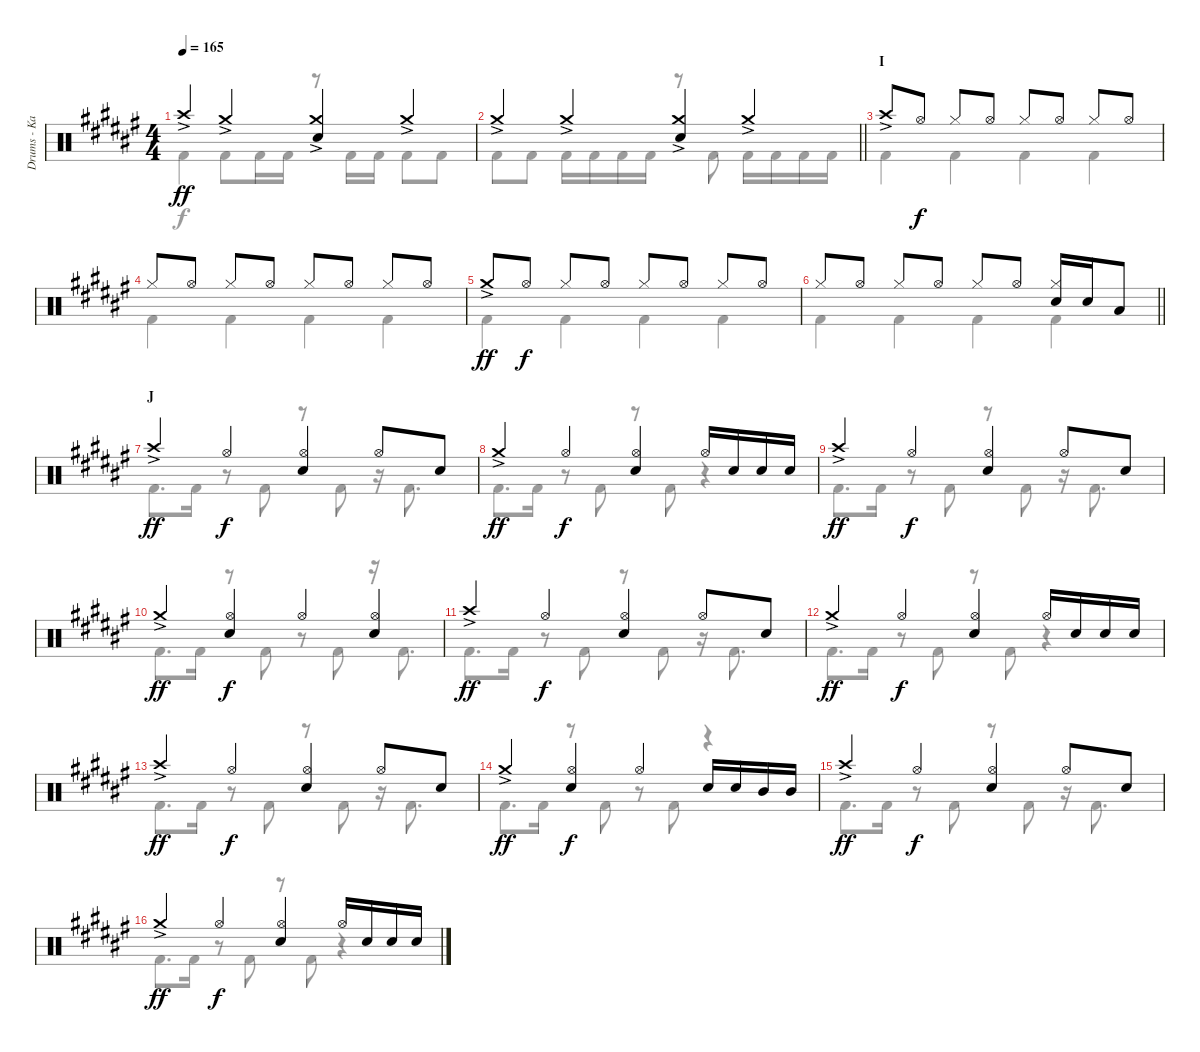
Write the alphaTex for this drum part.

\track ("Drums - Kai" "Drums - Ka") {instrument percussion}
\staff {score}
\articulation defaults
\voice
\ts (4 4)
\tempo 165
\clef neutral
\ks f# "Crash high (hit)"{ac}.4{dy ff} "Crash medium (hit)"{ac}.4
("Crash medium (hit)"{ac} "Electric Snare (hit)").4 "Crash medium (hit)"{ac}.4 |
\barLineRight lightlight "Crash medium (hit)"{ac}.4 "Crash medium (hit)"{ac}.4
("Crash medium (hit)"{ac} "Electric Snare (hit)").4 "Crash medium (hit)"{ac}.4 |
\section ("" "I")
"Crash high (hit)"{ac}.8 "Hi-Hat (open)".8{dy f} "Hi-Hat (closed)".8 "Hi-Hat (open)".8 "Hi-Hat (closed)".8 "Hi-Hat (open)".8 "Hi-Hat (closed)".8 "Hi-Hat (open)".8 |
"Hi-Hat (closed)".8 "Hi-Hat (open)".8 "Hi-Hat (closed)".8 "Hi-Hat (open)".8 "Hi-Hat (closed)".8 "Hi-Hat (open)".8 "Hi-Hat (closed)".8 "Hi-Hat (open)".8 |
"Crash medium (hit)"{ac}.8{dy ff} "Hi-Hat (open)".8{dy f} "Hi-Hat (closed)".8 "Hi-Hat (open)".8 "Hi-Hat (closed)".8 "Hi-Hat (open)".8 "Hi-Hat (closed)".8 "Hi-Hat (open)".8 |
\barLineRight lightlight "Hi-Hat (closed)".8 "Hi-Hat (open)".8 "Hi-Hat (closed)".8 "Hi-Hat (open)".8 "Hi-Hat (closed)".8 "Hi-Hat (open)".8
("Hi-Hat (closed)" "Electric Snare (hit)").16 "Electric Snare (hit)".16 "Low Tom (hit)".8 |
\section ("" "J")
"Crash high (hit)"{ac}.4{dy ff} "Hi-Hat (open)".4{dy f} ("Hi-Hat (open)" "Electric Snare (hit)").4 "Hi-Hat (open)".8 "Electric Snare (hit)".8 |
"Crash medium (hit)"{ac}.4{dy ff} "Hi-Hat (open)".4{dy f} ("Hi-Hat (open)" "Electric Snare (hit)").4 "Hi-Hat (open)".16 "Electric Snare (hit)".16 "Electric Snare (hit)".16 "Electric Snare (hit)".16 |
"Crash high (hit)"{ac}.4{dy ff} "Hi-Hat (open)".4{dy f} ("Hi-Hat (open)" "Electric Snare (hit)").4 "Hi-Hat (open)".8 "Electric Snare (hit)".8 |
"Crash medium (hit)"{ac}.4{dy ff} ("Hi-Hat (open)" "Electric Snare (hit)").4{dy f} "Hi-Hat (open)".4 ("Hi-Hat (open)" "Electric Snare (hit)").4 |
"Crash high (hit)"{ac}.4{dy ff} "Hi-Hat (open)".4{dy f} ("Hi-Hat (open)" "Electric Snare (hit)").4 "Hi-Hat (open)".8 "Electric Snare (hit)".8 |
"Crash medium (hit)"{ac}.4{dy ff} "Hi-Hat (open)".4{dy f} ("Hi-Hat (open)" "Electric Snare (hit)").4 "Hi-Hat (open)".16 "Electric Snare (hit)".16 "Electric Snare (hit)".16 "Electric Snare (hit)".16 |
"Crash high (hit)"{ac}.4{dy ff} "Hi-Hat (open)".4{dy f} ("Hi-Hat (open)" "Electric Snare (hit)").4 "Hi-Hat (open)".8 "Electric Snare (hit)".8 |
"Crash medium (hit)"{ac}.4{dy ff} ("Hi-Hat (open)" "Electric Snare (hit)").4{dy f} "Hi-Hat (open)".4 "Electric Snare (hit)".16 "Electric Snare (hit)".16 "Mid Tom (hit)".16 "Mid Tom (hit)".16 |
"Crash high (hit)"{ac}.4{dy ff} "Hi-Hat (open)".4{dy f} ("Hi-Hat (open)" "Electric Snare (hit)").4 "Hi-Hat (open)".8 "Electric Snare (hit)".8 |
"Crash medium (hit)"{ac}.4{dy ff} "Hi-Hat (open)".4{dy f} ("Hi-Hat (open)" "Electric Snare (hit)").4 "Hi-Hat (open)".16 "Electric Snare (hit)".16 "Electric Snare (hit)".16 "Electric Snare (hit)".16
\voice
\clef neutral
\ottava regular
\simile none
\ks f# "Kick (hit) 2".4{dy f} "Kick (hit) 2".8 "Kick (hit) 2".16 "Kick (hit) 2".16
r.8 "Kick (hit) 2".16 "Kick (hit) 2".16 "Kick (hit) 2".8 "Kick (hit) 2".8 |
\barLineRight lightlight "Kick (hit) 2".8 "Kick (hit) 2".8 "Kick (hit) 2".16 "Kick (hit) 2".16 "Kick (hit) 2".16 "Kick (hit) 2".16
r.8 "Kick (hit) 2".8 "Kick (hit) 2".16 "Kick (hit) 2".16 "Kick (hit) 2".16 "Kick (hit) 2".16 |
"Kick (hit) 2".4 "Kick (hit) 2".4 "Kick (hit) 2".4 "Kick (hit) 2".4 |
"Kick (hit) 2".4 "Kick (hit) 2".4 "Kick (hit) 2".4 "Kick (hit) 2".4 |
"Kick (hit) 2".4 "Kick (hit) 2".4 "Kick (hit) 2".4 "Kick (hit) 2".4 |
\barLineRight lightlight "Kick (hit) 2".4 "Kick (hit) 2".4 "Kick (hit) 2".4 "Kick (hit) 2".4
|
"Kick (hit) 2".8{d} "Kick (hit) 2".16 r.8 "Kick (hit) 2".8 r.8 "Kick (hit) 2".8 r.16 "Kick (hit) 2".8{d} |
"Kick (hit) 2".8{d} "Kick (hit) 2".16 r.8 "Kick (hit) 2".8 r.8 "Kick (hit) 2".8 r.4 |
"Kick (hit) 2".8{d} "Kick (hit) 2".16 r.8 "Kick (hit) 2".8 r.8 "Kick (hit) 2".8 r.16 "Kick (hit) 2".8{d} |
"Kick (hit) 2".8{d} "Kick (hit) 2".16 r.8 "Kick (hit) 2".8 r.8 "Kick (hit) 2".8 r.16 "Kick (hit) 2".8{d} |
"Kick (hit) 2".8{d} "Kick (hit) 2".16 r.8 "Kick (hit) 2".8 r.8 "Kick (hit) 2".8 r.16 "Kick (hit) 2".8{d} |
"Kick (hit) 2".8{d} "Kick (hit) 2".16 r.8 "Kick (hit) 2".8 r.8 "Kick (hit) 2".8 r.4 |
"Kick (hit) 2".8{d} "Kick (hit) 2".16 r.8 "Kick (hit) 2".8 r.8 "Kick (hit) 2".8 r.16 "Kick (hit) 2".8{d} |
"Kick (hit) 2".8{d} "Kick (hit) 2".16 r.8 "Kick (hit) 2".8 r.8 "Kick (hit) 2".8 r.4 |
"Kick (hit) 2".8{d} "Kick (hit) 2".16 r.8 "Kick (hit) 2".8 r.8 "Kick (hit) 2".8 r.16 "Kick (hit) 2".8{d} |
"Kick (hit) 2".8{d} "Kick (hit) 2".16 r.8 "Kick (hit) 2".8 r.8 "Kick (hit) 2".8 r.4
